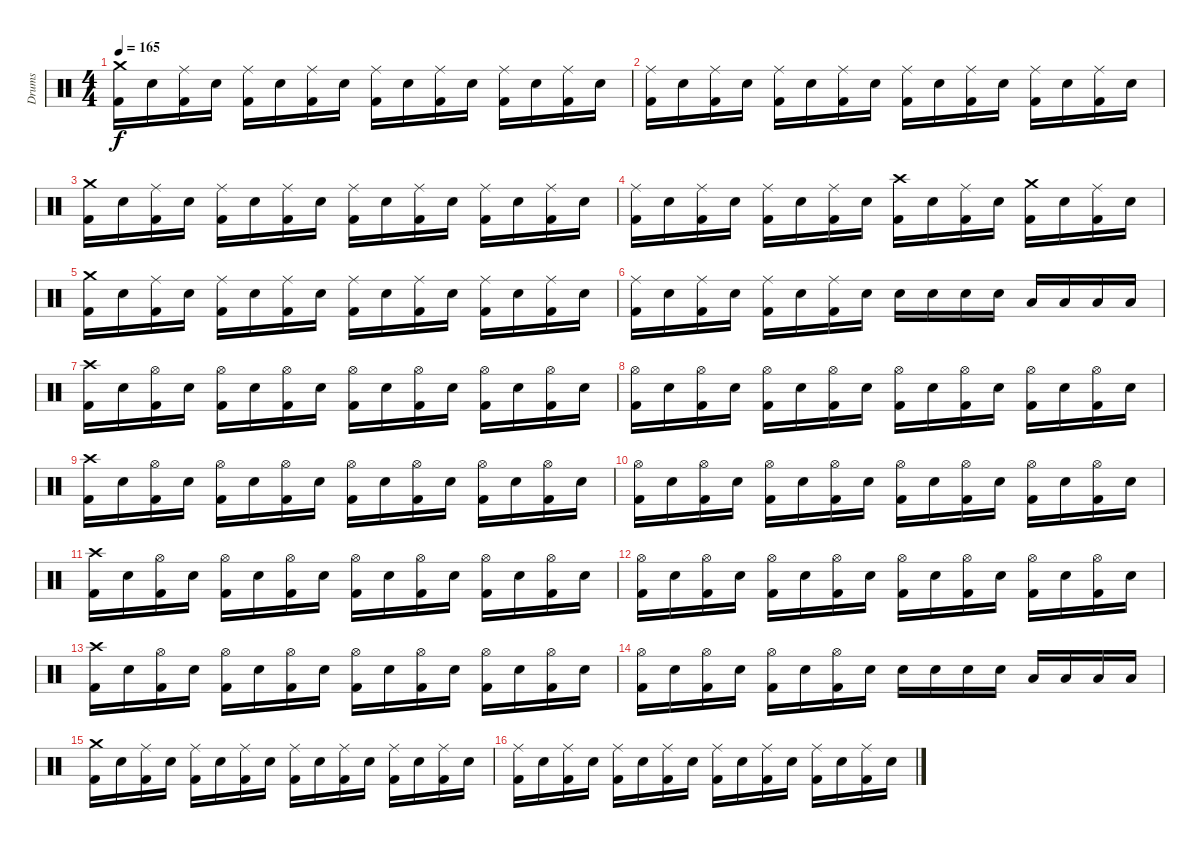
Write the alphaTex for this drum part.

\track ("Drums" "Drums") {instrument percussion}
\staff {score}
\articulation defaults
\ts (4 4)
\tempo 165
\clef neutral
\ks c
("Crash medium (hit)" "Kick (hit) 2").16{dy f} "Electric Snare (hit)".16 ("Ride (middle)" "Kick (hit) 2").16 "Electric Snare (hit)".16 ("Ride (middle)" "Kick (hit) 2").16 "Electric Snare (hit)".16 ("Ride (middle)" "Kick (hit) 2").16 "Electric Snare (hit)".16 ("Ride (middle)" "Kick (hit) 2").16 "Electric Snare (hit)".16 ("Ride (middle)" "Kick (hit) 2").16 "Electric Snare (hit)".16 ("Ride (middle)" "Kick (hit) 2").16 "Electric Snare (hit)".16 ("Ride (middle)" "Kick (hit) 2").16 "Electric Snare (hit)".16 |
("Ride (middle)" "Kick (hit) 2").16 "Electric Snare (hit)".16 ("Ride (middle)" "Kick (hit) 2").16 "Electric Snare (hit)".16 ("Ride (middle)" "Kick (hit) 2").16 "Electric Snare (hit)".16 ("Ride (middle)" "Kick (hit) 2").16 "Electric Snare (hit)".16 ("Ride (middle)" "Kick (hit) 2").16 "Electric Snare (hit)".16 ("Ride (middle)" "Kick (hit) 2").16 "Electric Snare (hit)".16 ("Ride (middle)" "Kick (hit) 2").16 "Electric Snare (hit)".16 ("Ride (middle)" "Kick (hit) 2").16 "Electric Snare (hit)".16 |
("Crash medium (hit)" "Kick (hit) 2").16 "Electric Snare (hit)".16 ("Ride (middle)" "Kick (hit) 2").16 "Electric Snare (hit)".16 ("Ride (middle)" "Kick (hit) 2").16 "Electric Snare (hit)".16 ("Ride (middle)" "Kick (hit) 2").16 "Electric Snare (hit)".16 ("Ride (middle)" "Kick (hit) 2").16 "Electric Snare (hit)".16 ("Ride (middle)" "Kick (hit) 2").16 "Electric Snare (hit)".16 ("Ride (middle)" "Kick (hit) 2").16 "Electric Snare (hit)".16 ("Ride (middle)" "Kick (hit) 2").16 "Electric Snare (hit)".16 |
("Ride (middle)" "Kick (hit) 2").16 "Electric Snare (hit)".16 ("Ride (middle)" "Kick (hit) 2").16 "Electric Snare (hit)".16 ("Ride (middle)" "Kick (hit) 2").16 "Electric Snare (hit)".16 ("Ride (middle)" "Kick (hit) 2").16 "Electric Snare (hit)".16 ("Crash high (hit)" "Kick (hit) 2").16 "Electric Snare (hit)".16 ("Ride (middle)" "Kick (hit) 2").16 "Electric Snare (hit)".16 ("Crash medium (hit)" "Kick (hit) 2").16 "Electric Snare (hit)".16 ("Ride (middle)" "Kick (hit) 2").16 "Electric Snare (hit)".16 |
("Crash medium (hit)" "Kick (hit) 2").16 "Electric Snare (hit)".16 ("Ride (middle)" "Kick (hit) 2").16 "Electric Snare (hit)".16 ("Ride (middle)" "Kick (hit) 2").16 "Electric Snare (hit)".16 ("Ride (middle)" "Kick (hit) 2").16 "Electric Snare (hit)".16 ("Ride (middle)" "Kick (hit) 2").16 "Electric Snare (hit)".16 ("Ride (middle)" "Kick (hit) 2").16 "Electric Snare (hit)".16 ("Ride (middle)" "Kick (hit) 2").16 "Electric Snare (hit)".16 ("Ride (middle)" "Kick (hit) 2").16 "Electric Snare (hit)".16 |
("Ride (middle)" "Kick (hit) 2").16 "Electric Snare (hit)".16 ("Ride (middle)" "Kick (hit) 2").16 "Electric Snare (hit)".16 ("Ride (middle)" "Kick (hit) 2").16 "Electric Snare (hit)".16 ("Ride (middle)" "Kick (hit) 2").16 "Electric Snare (hit)".16 "Electric Snare (hit)".16 "Electric Snare (hit)".16 "Electric Snare (hit)".16 "Electric Snare (hit)".16 "Low Tom (hit)".16 "Low Tom (hit)".16 "Low Tom (hit)".16 "Low Tom (hit)".16 |
("Crash high (hit)" "Kick (hit) 2").16 "Electric Snare (hit)".16 ("Hi-Hat (open)" "Kick (hit) 2").16 "Electric Snare (hit)".16 ("Hi-Hat (open)" "Kick (hit) 2").16 "Electric Snare (hit)".16 ("Hi-Hat (open)" "Kick (hit) 2").16 "Electric Snare (hit)".16 ("Hi-Hat (open)" "Kick (hit) 2").16 "Electric Snare (hit)".16 ("Hi-Hat (open)" "Kick (hit) 2").16 "Electric Snare (hit)".16 ("Hi-Hat (open)" "Kick (hit) 2").16 "Electric Snare (hit)".16 ("Hi-Hat (open)" "Kick (hit) 2").16 "Electric Snare (hit)".16 |
("Hi-Hat (open)" "Kick (hit) 2").16 "Electric Snare (hit)".16 ("Hi-Hat (open)" "Kick (hit) 2").16 "Electric Snare (hit)".16 ("Hi-Hat (open)" "Kick (hit) 2").16 "Electric Snare (hit)".16 ("Hi-Hat (open)" "Kick (hit) 2").16 "Electric Snare (hit)".16 ("Hi-Hat (open)" "Kick (hit) 2").16 "Electric Snare (hit)".16 ("Hi-Hat (open)" "Kick (hit) 2").16 "Electric Snare (hit)".16 ("Hi-Hat (open)" "Kick (hit) 2").16 "Electric Snare (hit)".16 ("Hi-Hat (open)" "Kick (hit) 2").16 "Electric Snare (hit)".16 |
("Crash high (hit)" "Kick (hit) 2").16 "Electric Snare (hit)".16 ("Hi-Hat (open)" "Kick (hit) 2").16 "Electric Snare (hit)".16 ("Hi-Hat (open)" "Kick (hit) 2").16 "Electric Snare (hit)".16 ("Hi-Hat (open)" "Kick (hit) 2").16 "Electric Snare (hit)".16 ("Hi-Hat (open)" "Kick (hit) 2").16 "Electric Snare (hit)".16 ("Hi-Hat (open)" "Kick (hit) 2").16 "Electric Snare (hit)".16 ("Hi-Hat (open)" "Kick (hit) 2").16 "Electric Snare (hit)".16 ("Hi-Hat (open)" "Kick (hit) 2").16 "Electric Snare (hit)".16 |
("Hi-Hat (open)" "Kick (hit) 2").16 "Electric Snare (hit)".16 ("Hi-Hat (open)" "Kick (hit) 2").16 "Electric Snare (hit)".16 ("Hi-Hat (open)" "Kick (hit) 2").16 "Electric Snare (hit)".16 ("Hi-Hat (open)" "Kick (hit) 2").16 "Electric Snare (hit)".16 ("Hi-Hat (open)" "Kick (hit) 2").16 "Electric Snare (hit)".16 ("Hi-Hat (open)" "Kick (hit) 2").16 "Electric Snare (hit)".16 ("Hi-Hat (open)" "Kick (hit) 2").16 "Electric Snare (hit)".16 ("Hi-Hat (open)" "Kick (hit) 2").16 "Electric Snare (hit)".16 |
("Crash high (hit)" "Kick (hit) 2").16 "Electric Snare (hit)".16 ("Hi-Hat (open)" "Kick (hit) 2").16 "Electric Snare (hit)".16 ("Hi-Hat (open)" "Kick (hit) 2").16 "Electric Snare (hit)".16 ("Hi-Hat (open)" "Kick (hit) 2").16 "Electric Snare (hit)".16 ("Hi-Hat (open)" "Kick (hit) 2").16 "Electric Snare (hit)".16 ("Hi-Hat (open)" "Kick (hit) 2").16 "Electric Snare (hit)".16 ("Hi-Hat (open)" "Kick (hit) 2").16 "Electric Snare (hit)".16 ("Hi-Hat (open)" "Kick (hit) 2").16 "Electric Snare (hit)".16 |
("Hi-Hat (open)" "Kick (hit) 2").16 "Electric Snare (hit)".16 ("Hi-Hat (open)" "Kick (hit) 2").16 "Electric Snare (hit)".16 ("Hi-Hat (open)" "Kick (hit) 2").16 "Electric Snare (hit)".16 ("Hi-Hat (open)" "Kick (hit) 2").16 "Electric Snare (hit)".16 ("Hi-Hat (open)" "Kick (hit) 2").16 "Electric Snare (hit)".16 ("Hi-Hat (open)" "Kick (hit) 2").16 "Electric Snare (hit)".16 ("Hi-Hat (open)" "Kick (hit) 2").16 "Electric Snare (hit)".16 ("Hi-Hat (open)" "Kick (hit) 2").16 "Electric Snare (hit)".16 |
("Crash high (hit)" "Kick (hit) 2").16 "Electric Snare (hit)".16 ("Hi-Hat (open)" "Kick (hit) 2").16 "Electric Snare (hit)".16 ("Hi-Hat (open)" "Kick (hit) 2").16 "Electric Snare (hit)".16 ("Hi-Hat (open)" "Kick (hit) 2").16 "Electric Snare (hit)".16 ("Hi-Hat (open)" "Kick (hit) 2").16 "Electric Snare (hit)".16 ("Hi-Hat (open)" "Kick (hit) 2").16 "Electric Snare (hit)".16 ("Hi-Hat (open)" "Kick (hit) 2").16 "Electric Snare (hit)".16 ("Hi-Hat (open)" "Kick (hit) 2").16 "Electric Snare (hit)".16 |
("Hi-Hat (open)" "Kick (hit) 2").16 "Electric Snare (hit)".16 ("Hi-Hat (open)" "Kick (hit) 2").16 "Electric Snare (hit)".16 ("Hi-Hat (open)" "Kick (hit) 2").16 "Electric Snare (hit)".16 ("Hi-Hat (open)" "Kick (hit) 2").16 "Electric Snare (hit)".16 "Electric Snare (hit)".16 "Electric Snare (hit)".16 "Electric Snare (hit)".16 "Electric Snare (hit)".16 "Low Tom (hit)".16 "Low Tom (hit)".16 "Low Tom (hit)".16 "Low Tom (hit)".16 |
("Crash medium (hit)" "Kick (hit) 2").16 "Electric Snare (hit)".16 ("Ride (middle)" "Kick (hit) 2").16 "Electric Snare (hit)".16 ("Ride (middle)" "Kick (hit) 2").16 "Electric Snare (hit)".16 ("Ride (middle)" "Kick (hit) 2").16 "Electric Snare (hit)".16 ("Ride (middle)" "Kick (hit) 2").16 "Electric Snare (hit)".16 ("Ride (middle)" "Kick (hit) 2").16 "Electric Snare (hit)".16 ("Ride (middle)" "Kick (hit) 2").16 "Electric Snare (hit)".16 ("Ride (middle)" "Kick (hit) 2").16 "Electric Snare (hit)".16 |
("Ride (middle)" "Kick (hit) 2").16 "Electric Snare (hit)".16 ("Ride (middle)" "Kick (hit) 2").16 "Electric Snare (hit)".16 ("Ride (middle)" "Kick (hit) 2").16 "Electric Snare (hit)".16 ("Ride (middle)" "Kick (hit) 2").16 "Electric Snare (hit)".16 ("Ride (middle)" "Kick (hit) 2").16 "Electric Snare (hit)".16 ("Ride (middle)" "Kick (hit) 2").16 "Electric Snare (hit)".16 ("Ride (middle)" "Kick (hit) 2").16 "Electric Snare (hit)".16 ("Ride (middle)" "Kick (hit) 2").16 "Electric Snare (hit)".16
